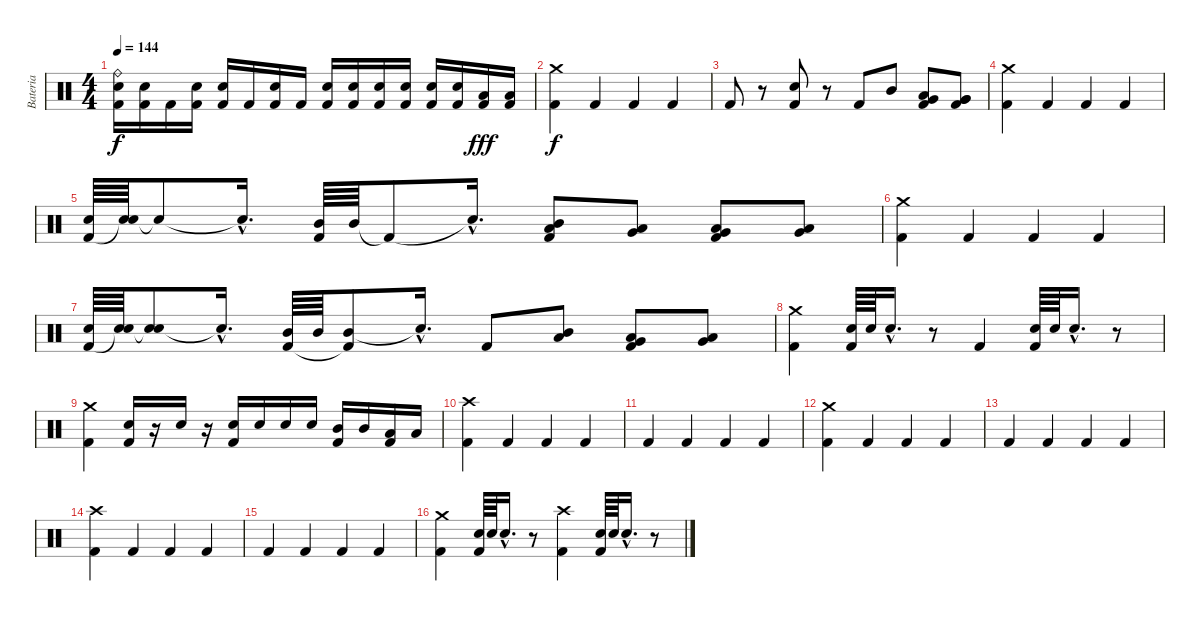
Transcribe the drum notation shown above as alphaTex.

\track ("Bateria" "Bateria") {instrument percussion}
\staff {score}
\articulation defaults
\ts (4 4)
\tempo 144
\clef neutral
\ks c
("Ride (bell)" "Electric Snare (hit)" "Kick (hit) 2").16{dy f} ("Electric Snare (hit)" "Kick (hit) 2").16 "Kick (hit) 2".16 ("Electric Snare (hit)" "Kick (hit) 2").16 ("Electric Snare (hit)" "Kick (hit) 2").16 "Kick (hit) 2".16 ("Electric Snare (hit)" "Kick (hit) 2").16 "Kick (hit) 2".16 ("Electric Snare (hit)" "Kick (hit) 2").16 ("Electric Snare (hit)" "Kick (hit) 2").16 ("Electric Snare (hit)" "Kick (hit) 2").16 ("Electric Snare (hit)" "Kick (hit) 2").16 ("Electric Snare (hit)" "Kick (hit) 2").16 ("Electric Snare (hit)" "Kick (hit) 2").16 ("Low Tom (hit)" "Kick (hit) 2").16{dy fff} ("Low Tom (hit)" "Kick (hit) 2").16 |
("Crash medium (hit)" "Kick (hit) 2").4{dy f} "Kick (hit) 2".4 "Kick (hit) 2".4 "Kick (hit) 2".4 |
"Kick (hit) 2".8 r.8 ("Electric Snare (hit)" "Kick (hit) 2").8 r.8 "Kick (hit) 2".8 "Mid Tom (hit)".8 ("Very Low Tom (hit)" "Low Tom (hit)" "Kick (hit) 2").8 ("Very Low Tom (hit)" "Very Low Tom (hit)" "Kick (hit) 2").8 |
("Crash medium (hit)" "Kick (hit) 2").4 "Kick (hit) 2".4 "Kick (hit) 2".4 "Kick (hit) 2".4 |
("Electric Snare (hit)" "Kick (hit) 2").64 ("Electric Snare (hit)" "Snare (hit)"{t}).64 "Snare (hit)"{t}.8 "Snare (hit)"{hac t}.16{d} ("Mid Tom (hit)" "Kick (hit) 2").64 "Mid Tom (hit)".64 "Kick (hit) 2"{t}.8 "Snare (hit)"{hac t}.16{d} ("Low Tom (hit)" "Mid Tom (hit)" "Kick (hit) 2").8 ("Very Low Tom (hit)" "Low Tom (hit)").8 ("Low Floor Tom (hit)" "Very Low Tom (hit)" "Kick (hit) 2").8 ("Low Floor Tom (hit)" "Very Low Tom (hit)").8 |
("Crash medium (hit)" "Kick (hit) 2").4 "Kick (hit) 2".4 "Kick (hit) 2".4 "Kick (hit) 2".4 |
("Electric Snare (hit)" "Kick (hit) 2").64 ("Electric Snare (hit)" "Snare (hit)"{t}).64 ("Electric Snare (hit)" "Snare (hit)"{t}).8 "Snare (hit)"{hac t}.16{d} ("Mid Tom (hit)" "Kick (hit) 2").64 "Mid Tom (hit)".64 ("Mid Tom (hit)" "Kick (hit) 2"{t}).8 "Snare (hit)"{hac t}.16{d} "Kick (hit) 2".8 ("Low Tom (hit)" "Mid Tom (hit)").8 ("Very Low Tom (hit)" "Low Tom (hit)" "Kick (hit) 2").8 ("Low Floor Tom (hit)" "Very Low Tom (hit)").8 |
("Crash medium (hit)" "Kick (hit) 2").4 ("Electric Snare (hit)" "Kick (hit) 2").64 "Electric Snare (hit)".64 "Electric Snare (hit)"{hac}.16{d} r.8 "Kick (hit) 2".4 ("Electric Snare (hit)" "Kick (hit) 2").64 "Electric Snare (hit)".64 "Electric Snare (hit)"{hac}.16{d} r.8 |
("Crash medium (hit)" "Kick (hit) 2").4 ("Electric Snare (hit)" "Kick (hit) 2").16 r.16 "Electric Snare (hit)".16 r.16 ("Electric Snare (hit)" "Kick (hit) 2").16 "Electric Snare (hit)".16 "Electric Snare (hit)".16 "Electric Snare (hit)".16 ("Mid Tom (hit)" "Kick (hit) 2").16 "Mid Tom (hit)".16 ("Low Tom (hit)" "Kick (hit) 2").16 "Low Tom (hit)".16 |
("Crash high (hit)" "Kick (hit) 2").4 "Kick (hit) 2".4 "Kick (hit) 2".4 "Kick (hit) 2".4 |
"Kick (hit) 2".4 "Kick (hit) 2".4 "Kick (hit) 2".4 "Kick (hit) 2".4 |
("Crash medium (hit)" "Kick (hit) 2").4 "Kick (hit) 2".4 "Kick (hit) 2".4 "Kick (hit) 2".4 |
"Kick (hit) 2".4 "Kick (hit) 2".4 "Kick (hit) 2".4 "Kick (hit) 2".4 |
("Crash high (hit)" "Kick (hit) 2").4 "Kick (hit) 2".4 "Kick (hit) 2".4 "Kick (hit) 2".4 |
"Kick (hit) 2".4 "Kick (hit) 2".4 "Kick (hit) 2".4 "Kick (hit) 2".4 |
("Crash medium (hit)" "Kick (hit) 2").4 ("Electric Snare (hit)" "Kick (hit) 2").64 "Electric Snare (hit)".64 "Electric Snare (hit)"{hac}.16{d} r.8 ("Crash high (hit)" "Kick (hit) 2").4 ("Electric Snare (hit)" "Kick (hit) 2").64 "Electric Snare (hit)".64 "Electric Snare (hit)"{hac}.16{d} r.8
